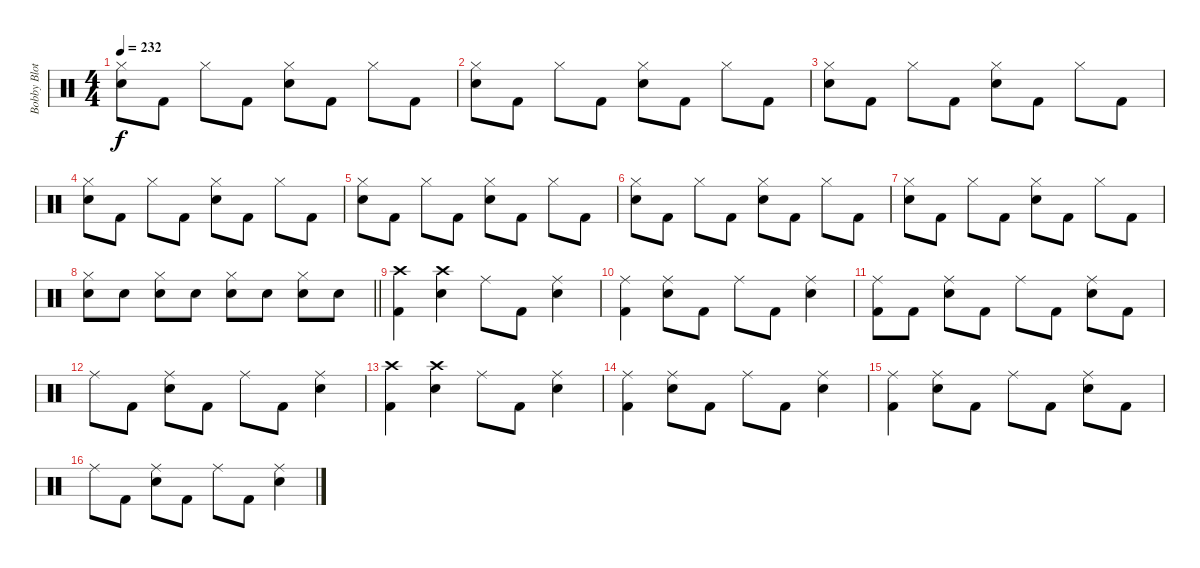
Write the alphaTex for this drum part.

\track ("Bobby Blotzer" "Bobby Blot") {instrument percussion}
\staff {score}
\articulation defaults
\ts (4 4)
\tempo 232
\clef neutral
\ks c
("Hi-Hat (closed)" "Electric Snare (hit)").8{dy f} "Kick (hit) 2".8 "Hi-Hat (closed)".8 "Kick (hit) 2".8 ("Hi-Hat (closed)" "Electric Snare (hit)").8 "Kick (hit) 2".8 "Hi-Hat (closed)".8 "Kick (hit) 2".8 |
("Hi-Hat (closed)" "Electric Snare (hit)").8 "Kick (hit) 2".8 "Hi-Hat (closed)".8 "Kick (hit) 2".8 ("Hi-Hat (closed)" "Electric Snare (hit)").8 "Kick (hit) 2".8 "Hi-Hat (closed)".8 "Kick (hit) 2".8 |
("Hi-Hat (closed)" "Electric Snare (hit)").8 "Kick (hit) 2".8 "Hi-Hat (closed)".8 "Kick (hit) 2".8 ("Hi-Hat (closed)" "Electric Snare (hit)").8 "Kick (hit) 2".8 "Hi-Hat (closed)".8 "Kick (hit) 2".8 |
("Hi-Hat (closed)" "Electric Snare (hit)").8 "Kick (hit) 2".8 "Hi-Hat (closed)".8 "Kick (hit) 2".8 ("Hi-Hat (closed)" "Electric Snare (hit)").8 "Kick (hit) 2".8 "Hi-Hat (closed)".8 "Kick (hit) 2".8 |
("Hi-Hat (closed)" "Electric Snare (hit)").8 "Kick (hit) 2".8 "Hi-Hat (closed)".8 "Kick (hit) 2".8 ("Hi-Hat (closed)" "Electric Snare (hit)").8 "Kick (hit) 2".8 "Hi-Hat (closed)".8 "Kick (hit) 2".8 |
("Hi-Hat (closed)" "Electric Snare (hit)").8 "Kick (hit) 2".8 "Hi-Hat (closed)".8 "Kick (hit) 2".8 ("Hi-Hat (closed)" "Electric Snare (hit)").8 "Kick (hit) 2".8 "Hi-Hat (closed)".8 "Kick (hit) 2".8 |
("Hi-Hat (closed)" "Electric Snare (hit)").8 "Kick (hit) 2".8 "Hi-Hat (closed)".8 "Kick (hit) 2".8 ("Hi-Hat (closed)" "Electric Snare (hit)").8 "Kick (hit) 2".8 "Hi-Hat (closed)".8 "Kick (hit) 2".8 |
\barLineRight lightlight
("Hi-Hat (closed)" "Electric Snare (hit)").8 "Electric Snare (hit)".8 ("Hi-Hat (closed)" "Electric Snare (hit)").8 "Electric Snare (hit)".8 ("Hi-Hat (closed)" "Electric Snare (hit)").8 "Electric Snare (hit)".8 ("Hi-Hat (closed)" "Electric Snare (hit)").8 "Electric Snare (hit)".8 |
("Crash high (hit)" "Kick (hit) 2").4 ("Crash high (hit)" "Electric Snare (hit)").4 "Ride (middle)".8 "Kick (hit) 2".8 ("Ride (middle)" "Electric Snare (hit)").4 |
("Ride (middle)" "Kick (hit) 2").4 ("Ride (middle)" "Electric Snare (hit)").8 "Kick (hit) 2".8 "Ride (middle)".8 "Kick (hit) 2".8 ("Ride (middle)" "Electric Snare (hit)").4 |
("Ride (middle)" "Kick (hit) 2").8 "Kick (hit) 2".8 ("Ride (middle)" "Electric Snare (hit)").8 "Kick (hit) 2".8 "Ride (middle)".8 "Kick (hit) 2".8 ("Ride (middle)" "Electric Snare (hit)").8 "Kick (hit) 2".8 |
"Ride (middle)".8 "Kick (hit) 2".8 ("Ride (middle)" "Electric Snare (hit)").8 "Kick (hit) 2".8 "Ride (middle)".8 "Kick (hit) 2".8 ("Ride (middle)" "Electric Snare (hit)").4 |
("Crash high (hit)" "Kick (hit) 2").4 ("Crash high (hit)" "Electric Snare (hit)").4 "Ride (middle)".8 "Kick (hit) 2".8 ("Ride (middle)" "Electric Snare (hit)").4 |
("Ride (middle)" "Kick (hit) 2").4 ("Ride (middle)" "Electric Snare (hit)").8 "Kick (hit) 2".8 "Ride (middle)".8 "Kick (hit) 2".8 ("Ride (middle)" "Electric Snare (hit)").4 |
("Ride (middle)" "Kick (hit) 2").4 ("Ride (middle)" "Electric Snare (hit)").8 "Kick (hit) 2".8 "Ride (middle)".8 "Kick (hit) 2".8 ("Ride (middle)" "Electric Snare (hit)").8 "Kick (hit) 2".8 |
"Ride (middle)".8 "Kick (hit) 2".8 ("Ride (middle)" "Electric Snare (hit)").8 "Kick (hit) 2".8 "Ride (middle)".8 "Kick (hit) 2".8 ("Ride (middle)" "Electric Snare (hit)").4
